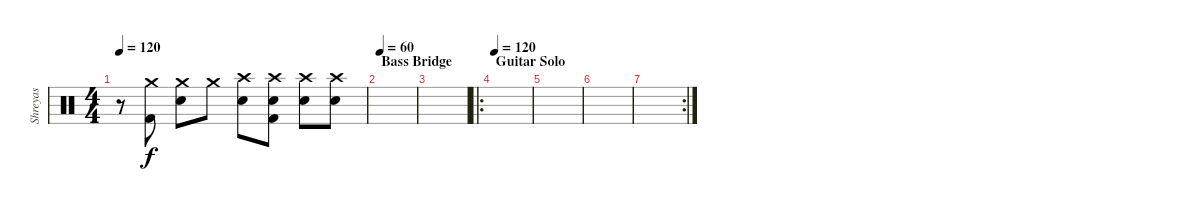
\track ("Shreyas" "Shreyas") {instrument percussion}
\staff {score}
\articulation defaults
\ts (4 4)
\tempo 120
\clef neutral
\ks c
r.8{dy f} ("Kick (hit) 2" "Crash medium (hit)").8 ("Snare (hit) 2" "Crash medium (hit)").8 "Crash medium (hit)".8 ("Snare (hit) 2" "Crash high (hit)").8 ("Snare (hit) 2" "Kick (hit) 2" "Crash high (hit)").8 ("Snare (hit) 2" "Crash high (hit)").8 ("Snare (hit) 2" "Crash high (hit)").8 |
\section ("" "Bass Bridge")
\tempo 60
|
|
\ro
\section ("" "Guitar Solo")
\tempo 120
|
|
|
\rc 2
